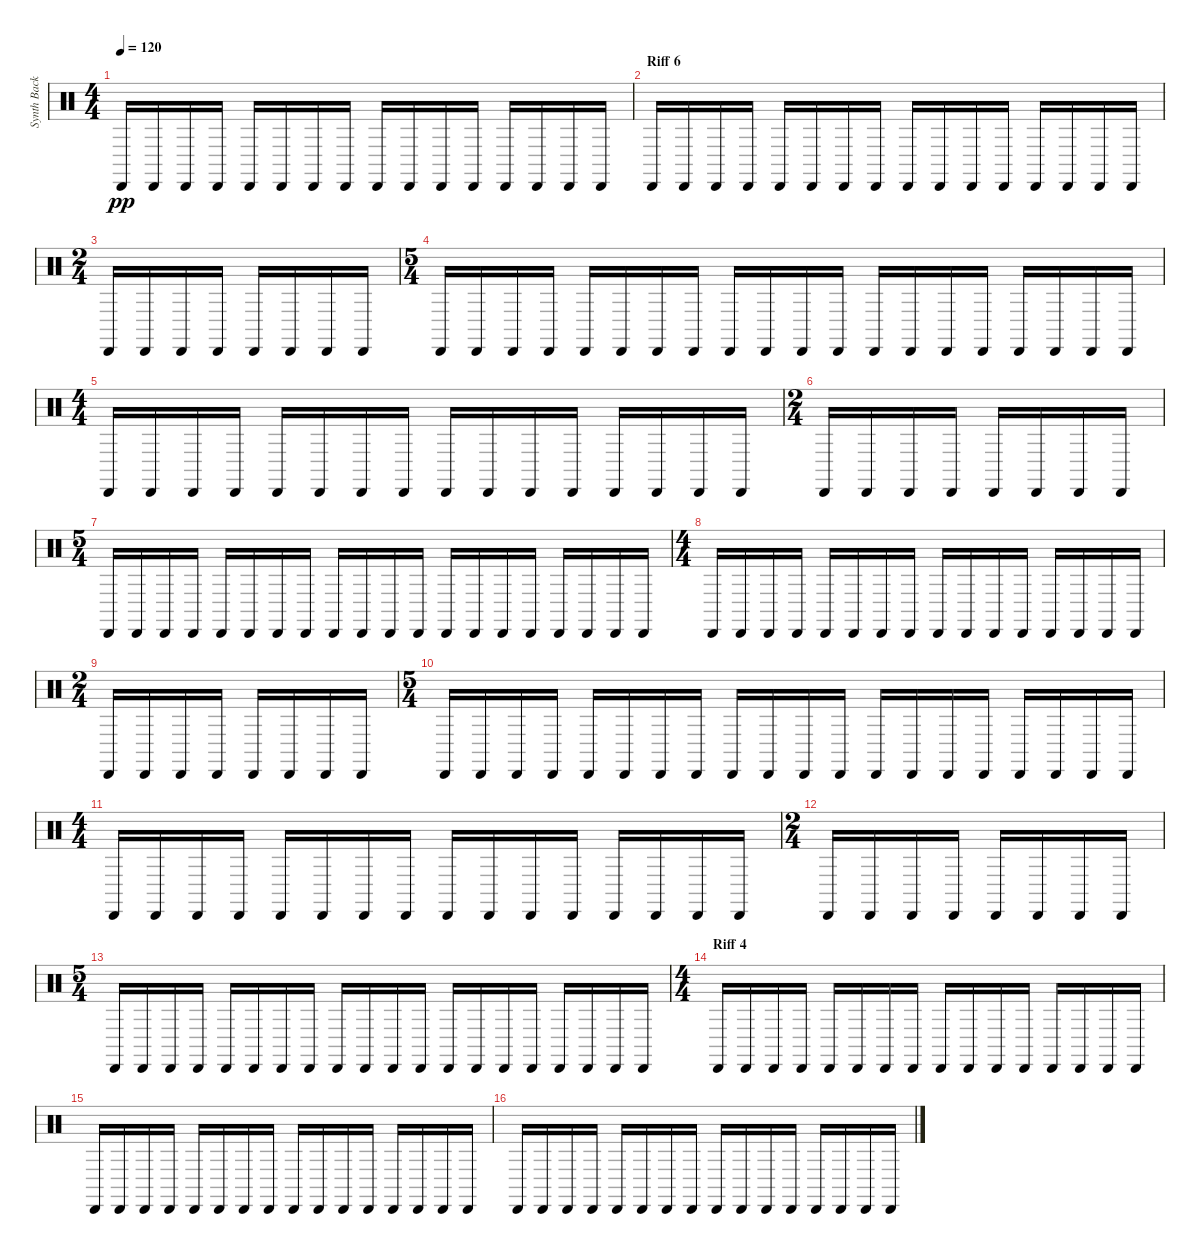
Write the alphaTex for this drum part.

\track ("Synth Background Rhythm" "Synth Back") {instrument percussion}
\staff {score}
\articulation defaults
\ts (4 4)
\tempo 120
\clef neutral
\ks c "Cabasa (hit)".16{dy pp} "Cabasa (hit)".16 "Cabasa (hit)".16 "Cabasa (hit)".16 "Cabasa (hit)".16 "Cabasa (hit)".16 "Cabasa (hit)".16 "Cabasa (hit)".16 "Cabasa (hit)".16 "Cabasa (hit)".16 "Cabasa (hit)".16 "Cabasa (hit)".16 "Cabasa (hit)".16 "Cabasa (hit)".16 "Cabasa (hit)".16 "Cabasa (hit)".16
|
\section ("" "Riff 6")
"Cabasa (hit)".16 "Cabasa (hit)".16 "Cabasa (hit)".16 "Cabasa (hit)".16 "Cabasa (hit)".16 "Cabasa (hit)".16 "Cabasa (hit)".16 "Cabasa (hit)".16 "Cabasa (hit)".16 "Cabasa (hit)".16 "Cabasa (hit)".16 "Cabasa (hit)".16 "Cabasa (hit)".16 "Cabasa (hit)".16 "Cabasa (hit)".16 "Cabasa (hit)".16 |
\ts (2 4)
"Cabasa (hit)".16 "Cabasa (hit)".16 "Cabasa (hit)".16 "Cabasa (hit)".16 "Cabasa (hit)".16 "Cabasa (hit)".16 "Cabasa (hit)".16 "Cabasa (hit)".16 |
\ts (5 4)
"Cabasa (hit)".16 "Cabasa (hit)".16 "Cabasa (hit)".16 "Cabasa (hit)".16 "Cabasa (hit)".16 "Cabasa (hit)".16 "Cabasa (hit)".16 "Cabasa (hit)".16 "Cabasa (hit)".16 "Cabasa (hit)".16 "Cabasa (hit)".16 "Cabasa (hit)".16 "Cabasa (hit)".16 "Cabasa (hit)".16 "Cabasa (hit)".16 "Cabasa (hit)".16 "Cabasa (hit)".16 "Cabasa (hit)".16 "Cabasa (hit)".16 "Cabasa (hit)".16 |
\ts (4 4)
"Cabasa (hit)".16 "Cabasa (hit)".16 "Cabasa (hit)".16 "Cabasa (hit)".16 "Cabasa (hit)".16 "Cabasa (hit)".16 "Cabasa (hit)".16 "Cabasa (hit)".16 "Cabasa (hit)".16 "Cabasa (hit)".16 "Cabasa (hit)".16 "Cabasa (hit)".16 "Cabasa (hit)".16 "Cabasa (hit)".16 "Cabasa (hit)".16 "Cabasa (hit)".16 |
\ts (2 4)
"Cabasa (hit)".16 "Cabasa (hit)".16 "Cabasa (hit)".16 "Cabasa (hit)".16 "Cabasa (hit)".16 "Cabasa (hit)".16 "Cabasa (hit)".16 "Cabasa (hit)".16 |
\ts (5 4)
"Cabasa (hit)".16 "Cabasa (hit)".16 "Cabasa (hit)".16 "Cabasa (hit)".16 "Cabasa (hit)".16 "Cabasa (hit)".16 "Cabasa (hit)".16 "Cabasa (hit)".16 "Cabasa (hit)".16 "Cabasa (hit)".16 "Cabasa (hit)".16 "Cabasa (hit)".16 "Cabasa (hit)".16 "Cabasa (hit)".16 "Cabasa (hit)".16 "Cabasa (hit)".16 "Cabasa (hit)".16 "Cabasa (hit)".16 "Cabasa (hit)".16 "Cabasa (hit)".16 |
\ts (4 4)
"Cabasa (hit)".16 "Cabasa (hit)".16 "Cabasa (hit)".16 "Cabasa (hit)".16 "Cabasa (hit)".16 "Cabasa (hit)".16 "Cabasa (hit)".16 "Cabasa (hit)".16 "Cabasa (hit)".16 "Cabasa (hit)".16 "Cabasa (hit)".16 "Cabasa (hit)".16 "Cabasa (hit)".16 "Cabasa (hit)".16 "Cabasa (hit)".16 "Cabasa (hit)".16 |
\ts (2 4)
"Cabasa (hit)".16 "Cabasa (hit)".16 "Cabasa (hit)".16 "Cabasa (hit)".16 "Cabasa (hit)".16 "Cabasa (hit)".16 "Cabasa (hit)".16 "Cabasa (hit)".16 |
\ts (5 4)
"Cabasa (hit)".16 "Cabasa (hit)".16 "Cabasa (hit)".16 "Cabasa (hit)".16 "Cabasa (hit)".16 "Cabasa (hit)".16 "Cabasa (hit)".16 "Cabasa (hit)".16 "Cabasa (hit)".16 "Cabasa (hit)".16 "Cabasa (hit)".16 "Cabasa (hit)".16 "Cabasa (hit)".16 "Cabasa (hit)".16 "Cabasa (hit)".16 "Cabasa (hit)".16 "Cabasa (hit)".16 "Cabasa (hit)".16 "Cabasa (hit)".16 "Cabasa (hit)".16 |
\ts (4 4)
"Cabasa (hit)".16 "Cabasa (hit)".16 "Cabasa (hit)".16 "Cabasa (hit)".16 "Cabasa (hit)".16 "Cabasa (hit)".16 "Cabasa (hit)".16 "Cabasa (hit)".16 "Cabasa (hit)".16 "Cabasa (hit)".16 "Cabasa (hit)".16 "Cabasa (hit)".16 "Cabasa (hit)".16 "Cabasa (hit)".16 "Cabasa (hit)".16 "Cabasa (hit)".16 |
\ts (2 4)
"Cabasa (hit)".16 "Cabasa (hit)".16 "Cabasa (hit)".16 "Cabasa (hit)".16 "Cabasa (hit)".16 "Cabasa (hit)".16 "Cabasa (hit)".16 "Cabasa (hit)".16 |
\ts (5 4)
"Cabasa (hit)".16 "Cabasa (hit)".16 "Cabasa (hit)".16 "Cabasa (hit)".16 "Cabasa (hit)".16 "Cabasa (hit)".16 "Cabasa (hit)".16 "Cabasa (hit)".16 "Cabasa (hit)".16 "Cabasa (hit)".16 "Cabasa (hit)".16 "Cabasa (hit)".16 "Cabasa (hit)".16 "Cabasa (hit)".16 "Cabasa (hit)".16 "Cabasa (hit)".16 "Cabasa (hit)".16 "Cabasa (hit)".16 "Cabasa (hit)".16 "Cabasa (hit)".16 |
\ts (4 4)
\section ("" "Riff 4")
"Cabasa (hit)".16 "Cabasa (hit)".16 "Cabasa (hit)".16 "Cabasa (hit)".16 "Cabasa (hit)".16 "Cabasa (hit)".16 "Cabasa (hit)".16 "Cabasa (hit)".16 "Cabasa (hit)".16 "Cabasa (hit)".16 "Cabasa (hit)".16 "Cabasa (hit)".16 "Cabasa (hit)".16 "Cabasa (hit)".16 "Cabasa (hit)".16 "Cabasa (hit)".16 |
"Cabasa (hit)".16 "Cabasa (hit)".16 "Cabasa (hit)".16 "Cabasa (hit)".16 "Cabasa (hit)".16 "Cabasa (hit)".16 "Cabasa (hit)".16 "Cabasa (hit)".16 "Cabasa (hit)".16 "Cabasa (hit)".16 "Cabasa (hit)".16 "Cabasa (hit)".16 "Cabasa (hit)".16 "Cabasa (hit)".16 "Cabasa (hit)".16 "Cabasa (hit)".16 |
"Cabasa (hit)".16 "Cabasa (hit)".16 "Cabasa (hit)".16 "Cabasa (hit)".16 "Cabasa (hit)".16 "Cabasa (hit)".16 "Cabasa (hit)".16 "Cabasa (hit)".16 "Cabasa (hit)".16 "Cabasa (hit)".16 "Cabasa (hit)".16 "Cabasa (hit)".16 "Cabasa (hit)".16 "Cabasa (hit)".16 "Cabasa (hit)".16 "Cabasa (hit)".16
